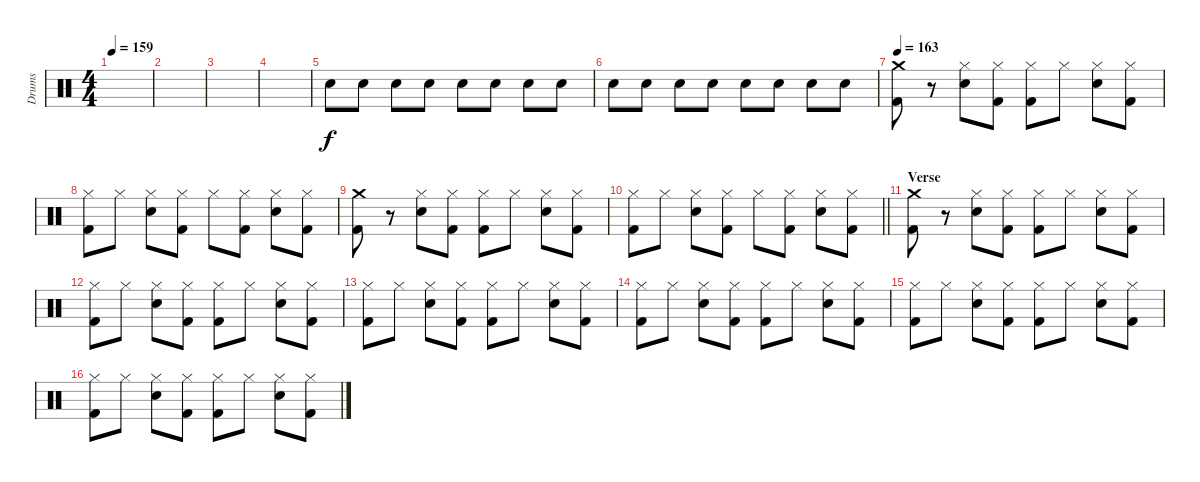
\track ("Drums" "Drums") {instrument percussion}
\staff {score}
\articulation defaults
\ts (4 4)
\tempo 159
\clef neutral
\ks c
|
|
|
|
"Snare (hit) 2".8{volume 16} "Snare (hit) 2".8 "Snare (hit) 2".8 "Snare (hit) 2".8 "Snare (hit) 2".8 "Snare (hit) 2".8 "Snare (hit) 2".8 "Snare (hit) 2".8 |
"Snare (hit) 2".8 "Snare (hit) 2".8 "Snare (hit) 2".8 "Snare (hit) 2".8 "Snare (hit) 2".8 "Snare (hit) 2".8 "Snare (hit) 2".8 "Snare (hit) 2".8 |
\tempo 163
("Crash medium (hit)" "Kick (hit) 2").8 r.8 ("Hi-Hat (closed)" "Snare (hit) 2").8 ("Hi-Hat (closed)" "Kick (hit) 2").8 ("Hi-Hat (closed)" "Kick (hit) 2").8 "Hi-Hat (closed)".8 ("Hi-Hat (closed)" "Snare (hit) 2").8 ("Hi-Hat (closed)" "Kick (hit) 2").8 |
("Hi-Hat (closed)" "Kick (hit) 2").8 "Hi-Hat (closed)".8 ("Hi-Hat (closed)" "Snare (hit) 2").8 ("Hi-Hat (closed)" "Kick (hit) 2").8 "Hi-Hat (closed)".8 ("Hi-Hat (closed)" "Kick (hit) 2").8 ("Hi-Hat (closed)" "Snare (hit) 2").8 ("Hi-Hat (closed)" "Kick (hit) 2").8 |
("Crash medium (hit)" "Kick (hit) 2").8 r.8 ("Hi-Hat (closed)" "Snare (hit) 2").8 ("Hi-Hat (closed)" "Kick (hit) 2").8 ("Hi-Hat (closed)" "Kick (hit) 2").8 "Hi-Hat (closed)".8 ("Hi-Hat (closed)" "Snare (hit) 2").8 ("Hi-Hat (closed)" "Kick (hit) 2").8 |
\barLineRight lightlight
("Hi-Hat (closed)" "Kick (hit) 2").8 "Hi-Hat (closed)".8 ("Hi-Hat (closed)" "Snare (hit) 2").8 ("Hi-Hat (closed)" "Kick (hit) 2").8 "Hi-Hat (closed)".8 ("Hi-Hat (closed)" "Kick (hit) 2").8 ("Hi-Hat (closed)" "Snare (hit) 2").8 ("Hi-Hat (closed)" "Kick (hit) 2").8 |
\section ("" "Verse")
("Crash medium (hit)" "Kick (hit) 2").8 r.8 ("Hi-Hat (closed)" "Snare (hit) 2").8 ("Hi-Hat (closed)" "Kick (hit) 2").8 ("Hi-Hat (closed)" "Kick (hit) 2").8 "Hi-Hat (closed)".8 ("Hi-Hat (closed)" "Snare (hit) 2").8 ("Hi-Hat (closed)" "Kick (hit) 2").8 |
("Hi-Hat (closed)" "Kick (hit) 2").8 "Hi-Hat (closed)".8 ("Hi-Hat (closed)" "Snare (hit) 2").8 ("Hi-Hat (closed)" "Kick (hit) 2").8 ("Hi-Hat (closed)" "Kick (hit) 2").8 "Hi-Hat (closed)".8 ("Hi-Hat (closed)" "Snare (hit) 2").8 ("Hi-Hat (closed)" "Kick (hit) 2").8 |
("Hi-Hat (closed)" "Kick (hit) 2").8 "Hi-Hat (closed)".8 ("Hi-Hat (closed)" "Snare (hit) 2").8 ("Hi-Hat (closed)" "Kick (hit) 2").8 ("Hi-Hat (closed)" "Kick (hit) 2").8 "Hi-Hat (closed)".8 ("Hi-Hat (closed)" "Snare (hit) 2").8 ("Hi-Hat (closed)" "Kick (hit) 2").8 |
("Hi-Hat (closed)" "Kick (hit) 2").8 "Hi-Hat (closed)".8 ("Hi-Hat (closed)" "Snare (hit) 2").8 ("Hi-Hat (closed)" "Kick (hit) 2").8 ("Hi-Hat (closed)" "Kick (hit) 2").8 "Hi-Hat (closed)".8 ("Hi-Hat (closed)" "Snare (hit) 2").8 ("Hi-Hat (closed)" "Kick (hit) 2").8 |
("Hi-Hat (closed)" "Kick (hit) 2").8 "Hi-Hat (closed)".8 ("Hi-Hat (closed)" "Snare (hit) 2").8 ("Hi-Hat (closed)" "Kick (hit) 2").8 ("Hi-Hat (closed)" "Kick (hit) 2").8 "Hi-Hat (closed)".8 ("Hi-Hat (closed)" "Snare (hit) 2").8 ("Hi-Hat (closed)" "Kick (hit) 2").8 |
("Hi-Hat (closed)" "Kick (hit) 2").8 "Hi-Hat (closed)".8 ("Hi-Hat (closed)" "Snare (hit) 2").8 ("Hi-Hat (closed)" "Kick (hit) 2").8 ("Hi-Hat (closed)" "Kick (hit) 2").8 "Hi-Hat (closed)".8 ("Hi-Hat (closed)" "Snare (hit) 2").8 ("Hi-Hat (closed)" "Kick (hit) 2").8
